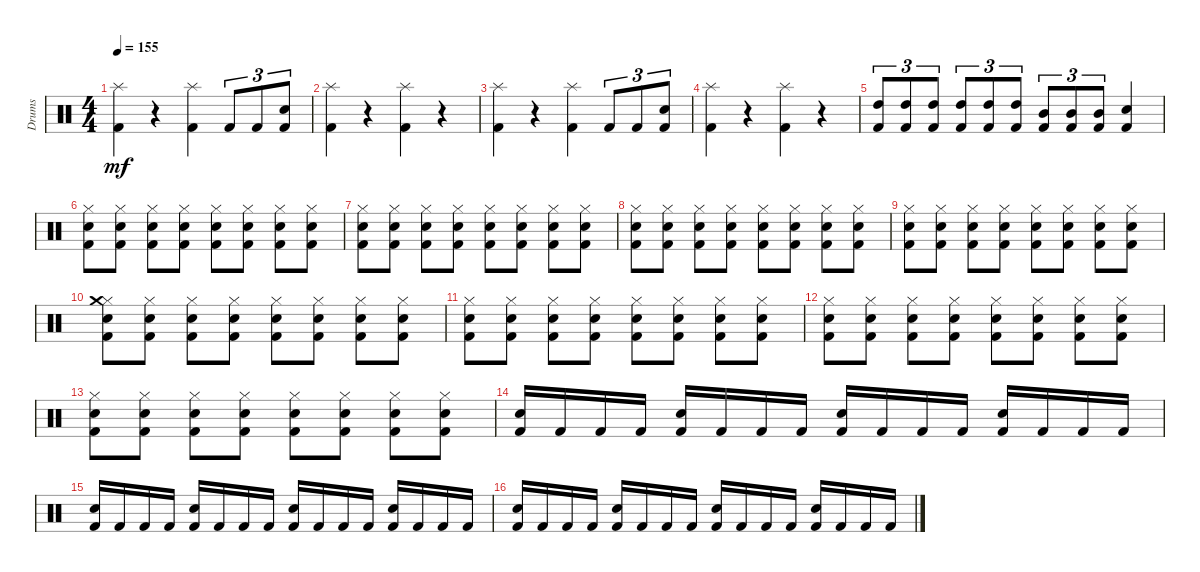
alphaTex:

\track ("Drums" "Drums") {instrument percussion}
\staff {score}
\articulation defaults
\ts (4 4)
\tempo 155
\clef neutral
\ks c
("Kick (hit) 2" "Splash (hit)").4{dy mf} r.4 ("Kick (hit) 2" "Splash (hit)").4 "Kick (hit) 2".8{tu (3 2)} "Kick (hit) 2".8{tu (3 2)} ("Kick (hit) 2" "Snare (hit) 2").8{tu (3 2)} |
("Kick (hit) 2" "Splash (hit)").4 r.4 ("Kick (hit) 2" "Splash (hit)").4 r.4 |
("Kick (hit) 2" "Splash (hit)").4 r.4 ("Kick (hit) 2" "Splash (hit)").4 "Kick (hit) 2".8{tu (3 2)} "Kick (hit) 2".8{tu (3 2)} ("Kick (hit) 2" "Snare (hit) 2").8{tu (3 2)} |
("Kick (hit) 2" "Splash (hit)").4 r.4 ("Kick (hit) 2" "Splash (hit)").4 r.4 |
("Kick (hit) 2" "High Tom (hit)").8{tu (3 2)} ("Kick (hit) 2" "High Tom (hit)").8{tu (3 2)} ("Kick (hit) 2" "High Tom (hit)").8{tu (3 2)} ("Kick (hit) 2" "High Tom (hit)").8{tu (3 2)} ("Kick (hit) 2" "High Tom (hit)").8{tu (3 2)} ("Kick (hit) 2" "High Tom (hit)").8{tu (3 2)} ("Kick (hit) 2" "Mid Tom (hit)").8{tu (3 2)} ("Kick (hit) 2" "Mid Tom (hit)").8{tu (3 2)} ("Kick (hit) 2" "Mid Tom (hit)").8{tu (3 2)} ("Kick (hit) 2" "Snare (hit) 2").4 |
("Kick (hit) 2" "Snare (hit) 2" "Hi-Hat (closed)").8 ("Kick (hit) 2" "Snare (hit) 2" "Hi-Hat (closed)").8 ("Kick (hit) 2" "Snare (hit) 2" "Hi-Hat (closed)").8 ("Kick (hit) 2" "Snare (hit) 2" "Hi-Hat (closed)").8 ("Kick (hit) 2" "Snare (hit) 2" "Hi-Hat (closed)").8 ("Kick (hit) 2" "Snare (hit) 2" "Hi-Hat (closed)").8 ("Kick (hit) 2" "Snare (hit) 2" "Hi-Hat (closed)").8 ("Kick (hit) 2" "Snare (hit) 2" "Hi-Hat (closed)").8 |
("Kick (hit) 2" "Snare (hit) 2" "Hi-Hat (closed)").8 ("Kick (hit) 2" "Snare (hit) 2" "Hi-Hat (closed)").8 ("Kick (hit) 2" "Snare (hit) 2" "Hi-Hat (closed)").8 ("Kick (hit) 2" "Snare (hit) 2" "Hi-Hat (closed)").8 ("Kick (hit) 2" "Snare (hit) 2" "Hi-Hat (closed)").8 ("Kick (hit) 2" "Snare (hit) 2" "Hi-Hat (closed)").8 ("Kick (hit) 2" "Snare (hit) 2" "Hi-Hat (closed)").8 ("Kick (hit) 2" "Snare (hit) 2" "Hi-Hat (closed)").8 |
("Kick (hit) 2" "Snare (hit) 2" "Hi-Hat (closed)").8 ("Kick (hit) 2" "Snare (hit) 2" "Hi-Hat (closed)").8 ("Kick (hit) 2" "Snare (hit) 2" "Hi-Hat (closed)").8 ("Kick (hit) 2" "Snare (hit) 2" "Hi-Hat (closed)").8 ("Kick (hit) 2" "Snare (hit) 2" "Hi-Hat (closed)").8 ("Kick (hit) 2" "Snare (hit) 2" "Hi-Hat (closed)").8 ("Kick (hit) 2" "Snare (hit) 2" "Hi-Hat (closed)").8 ("Kick (hit) 2" "Snare (hit) 2" "Hi-Hat (closed)").8 |
("Kick (hit) 2" "Snare (hit) 2" "Hi-Hat (closed)").8 ("Kick (hit) 2" "Snare (hit) 2" "Hi-Hat (closed)").8 ("Kick (hit) 2" "Snare (hit) 2" "Hi-Hat (closed)").8 ("Kick (hit) 2" "Snare (hit) 2" "Hi-Hat (closed)").8 ("Kick (hit) 2" "Snare (hit) 2" "Hi-Hat (closed)").8 ("Kick (hit) 2" "Snare (hit) 2" "Hi-Hat (closed)").8 ("Kick (hit) 2" "Snare (hit) 2" "Hi-Hat (closed)").8 ("Kick (hit) 2" "Snare (hit) 2" "Hi-Hat (closed)").8 |
("Kick (hit) 2" "Snare (hit) 2" "Hi-Hat (closed)" "Crash medium (hit)").8 ("Kick (hit) 2" "Snare (hit) 2" "Hi-Hat (closed)").8 ("Kick (hit) 2" "Snare (hit) 2" "Hi-Hat (closed)").8 ("Kick (hit) 2" "Snare (hit) 2" "Hi-Hat (closed)").8 ("Kick (hit) 2" "Snare (hit) 2" "Hi-Hat (closed)").8 ("Kick (hit) 2" "Snare (hit) 2" "Hi-Hat (closed)").8 ("Kick (hit) 2" "Snare (hit) 2" "Hi-Hat (closed)").8 ("Kick (hit) 2" "Snare (hit) 2" "Hi-Hat (closed)").8 |
("Kick (hit) 2" "Snare (hit) 2" "Hi-Hat (closed)").8 ("Kick (hit) 2" "Snare (hit) 2" "Hi-Hat (closed)").8 ("Kick (hit) 2" "Snare (hit) 2" "Hi-Hat (closed)").8 ("Kick (hit) 2" "Snare (hit) 2" "Hi-Hat (closed)").8 ("Kick (hit) 2" "Snare (hit) 2" "Hi-Hat (closed)").8 ("Kick (hit) 2" "Snare (hit) 2" "Hi-Hat (closed)").8 ("Kick (hit) 2" "Snare (hit) 2" "Hi-Hat (closed)").8 ("Kick (hit) 2" "Snare (hit) 2" "Hi-Hat (closed)").8 |
("Kick (hit) 2" "Snare (hit) 2" "Hi-Hat (closed)").8 ("Kick (hit) 2" "Snare (hit) 2" "Hi-Hat (closed)").8 ("Kick (hit) 2" "Snare (hit) 2" "Hi-Hat (closed)").8 ("Kick (hit) 2" "Snare (hit) 2" "Hi-Hat (closed)").8 ("Kick (hit) 2" "Snare (hit) 2" "Hi-Hat (closed)").8 ("Kick (hit) 2" "Snare (hit) 2" "Hi-Hat (closed)").8 ("Kick (hit) 2" "Snare (hit) 2" "Hi-Hat (closed)").8 ("Kick (hit) 2" "Snare (hit) 2" "Hi-Hat (closed)").8 |
("Kick (hit) 2" "Snare (hit) 2" "Hi-Hat (closed)").8 ("Kick (hit) 2" "Snare (hit) 2" "Hi-Hat (closed)").8 ("Kick (hit) 2" "Snare (hit) 2" "Hi-Hat (closed)").8 ("Kick (hit) 2" "Snare (hit) 2" "Hi-Hat (closed)").8 ("Kick (hit) 2" "Snare (hit) 2" "Hi-Hat (closed)").8 ("Kick (hit) 2" "Snare (hit) 2" "Hi-Hat (closed)").8 ("Kick (hit) 2" "Snare (hit) 2" "Hi-Hat (closed)").8 ("Kick (hit) 2" "Snare (hit) 2" "Hi-Hat (closed)").8 |
("Kick (hit) 2" "Snare (hit) 2").16 "Kick (hit) 2".16 "Kick (hit) 2".16 "Kick (hit) 2".16 ("Kick (hit) 2" "Snare (hit) 2").16 "Kick (hit) 2".16 "Kick (hit) 2".16 "Kick (hit) 2".16 ("Kick (hit) 2" "Snare (hit) 2").16 "Kick (hit) 2".16 "Kick (hit) 2".16 "Kick (hit) 2".16 ("Kick (hit) 2" "Snare (hit) 2").16 "Kick (hit) 2".16 "Kick (hit) 2".16 "Kick (hit) 2".16 |
("Kick (hit) 2" "Snare (hit) 2").16 "Kick (hit) 2".16 "Kick (hit) 2".16 "Kick (hit) 2".16 ("Kick (hit) 2" "Snare (hit) 2").16 "Kick (hit) 2".16 "Kick (hit) 2".16 "Kick (hit) 2".16 ("Kick (hit) 2" "Snare (hit) 2").16 "Kick (hit) 2".16 "Kick (hit) 2".16 "Kick (hit) 2".16 ("Kick (hit) 2" "Snare (hit) 2").16 "Kick (hit) 2".16 "Kick (hit) 2".16 "Kick (hit) 2".16 |
("Kick (hit) 2" "Snare (hit) 2").16 "Kick (hit) 2".16 "Kick (hit) 2".16 "Kick (hit) 2".16 ("Kick (hit) 2" "Snare (hit) 2").16 "Kick (hit) 2".16 "Kick (hit) 2".16 "Kick (hit) 2".16 ("Kick (hit) 2" "Snare (hit) 2").16 "Kick (hit) 2".16 "Kick (hit) 2".16 "Kick (hit) 2".16 ("Kick (hit) 2" "Snare (hit) 2").16 "Kick (hit) 2".16 "Kick (hit) 2".16 "Kick (hit) 2".16
